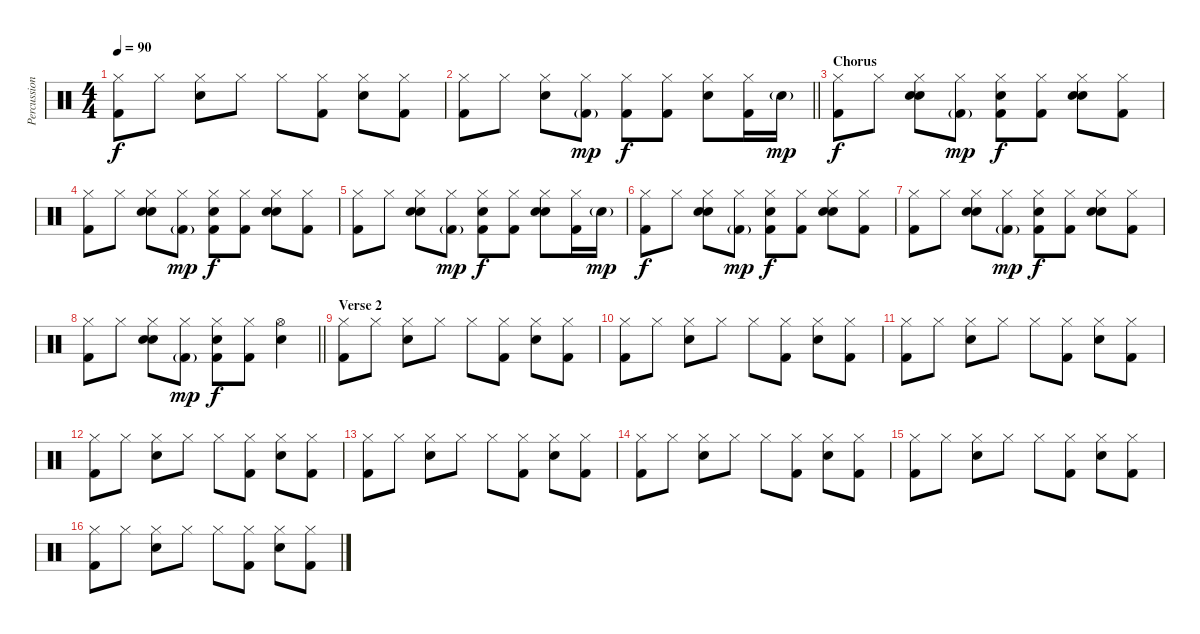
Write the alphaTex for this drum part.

\track ("Percussion" "Percussion") {instrument percussion}
\staff {score}
\articulation defaults
\ts (4 4)
\tempo 90
\clef neutral
\ks c
("Hi-Hat (closed)" "Kick (hit) 2").8{dy f} "Hi-Hat (closed)".8 ("Hi-Hat (closed)" "Snare (hit) 2").8 "Hi-Hat (closed)".8 "Hi-Hat (closed)".8 ("Hi-Hat (closed)" "Kick (hit) 2").8 ("Hi-Hat (closed)" "Snare (hit) 2").8 ("Hi-Hat (closed)" "Kick (hit) 2").8 |
\barLineRight lightlight
("Hi-Hat (closed)" "Kick (hit) 2").8 "Hi-Hat (closed)".8 ("Hi-Hat (closed)" "Snare (hit) 2").8 ("Hi-Hat (closed)" "Kick (hit) 2"{g}).8{dy mp} ("Hi-Hat (closed)" "Kick (hit) 2").8{dy f} ("Hi-Hat (closed)" "Kick (hit) 2").8 ("Hi-Hat (closed)" "Snare (hit) 2").8 ("Hi-Hat (closed)" "Kick (hit) 2").16 "Snare (hit) 2"{g}.16{dy mp} |
\section ("" "Chorus")
("Hi-Hat (closed)" "Kick (hit) 2").8{dy f} "Hi-Hat (closed)".8 ("Hi-Hat (closed)" "Hand Clap (hit)" "Snare (hit) 2").8 ("Hi-Hat (closed)" "Kick (hit) 2"{g}).8{dy mp} ("Hi-Hat (closed)" "Hand Clap (hit)" "Kick (hit) 2").8{dy f} ("Hi-Hat (closed)" "Kick (hit) 2").8 ("Hi-Hat (closed)" "Hand Clap (hit)" "Snare (hit) 2").8 ("Hi-Hat (closed)" "Kick (hit) 2").8 |
("Hi-Hat (closed)" "Kick (hit) 2").8 "Hi-Hat (closed)".8 ("Hi-Hat (closed)" "Hand Clap (hit)" "Snare (hit) 2").8 ("Hi-Hat (closed)" "Kick (hit) 2"{g}).8{dy mp} ("Hi-Hat (closed)" "Hand Clap (hit)" "Kick (hit) 2").8{dy f} ("Hi-Hat (closed)" "Kick (hit) 2").8 ("Hi-Hat (closed)" "Hand Clap (hit)" "Snare (hit) 2").8 ("Hi-Hat (closed)" "Kick (hit) 2").8 |
("Hi-Hat (closed)" "Kick (hit) 2").8 "Hi-Hat (closed)".8 ("Hi-Hat (closed)" "Hand Clap (hit)" "Snare (hit) 2").8 ("Hi-Hat (closed)" "Kick (hit) 2"{g}).8{dy mp} ("Hi-Hat (closed)" "Hand Clap (hit)" "Kick (hit) 2").8{dy f} ("Hi-Hat (closed)" "Kick (hit) 2").8 ("Hi-Hat (closed)" "Hand Clap (hit)" "Snare (hit) 2").8 ("Hi-Hat (closed)" "Kick (hit) 2").16 "Snare (hit) 2"{g}.16{dy mp} |
("Hi-Hat (closed)" "Kick (hit) 2").8{dy f} "Hi-Hat (closed)".8 ("Hi-Hat (closed)" "Hand Clap (hit)" "Snare (hit) 2").8 ("Hi-Hat (closed)" "Kick (hit) 2"{g}).8{dy mp} ("Hi-Hat (closed)" "Hand Clap (hit)" "Kick (hit) 2").8{dy f} ("Hi-Hat (closed)" "Kick (hit) 2").8 ("Hi-Hat (closed)" "Hand Clap (hit)" "Snare (hit) 2").8 ("Hi-Hat (closed)" "Kick (hit) 2").8 |
("Hi-Hat (closed)" "Kick (hit) 2").8 "Hi-Hat (closed)".8 ("Hi-Hat (closed)" "Hand Clap (hit)" "Snare (hit) 2").8 ("Hi-Hat (closed)" "Kick (hit) 2"{g}).8{dy mp} ("Hi-Hat (closed)" "Hand Clap (hit)" "Kick (hit) 2").8{dy f} ("Hi-Hat (closed)" "Kick (hit) 2").8 ("Hi-Hat (closed)" "Hand Clap (hit)" "Snare (hit) 2").8 ("Hi-Hat (closed)" "Kick (hit) 2").8 |
\barLineRight lightlight
("Hi-Hat (closed)" "Kick (hit) 2").8 "Hi-Hat (closed)".8 ("Hi-Hat (closed)" "Hand Clap (hit)" "Snare (hit) 2").8 ("Hi-Hat (closed)" "Kick (hit) 2"{g}).8{dy mp} ("Hi-Hat (closed)" "Hand Clap (hit)" "Kick (hit) 2").8{dy f} ("Hi-Hat (closed)" "Kick (hit) 2").8 ("Hi-Hat (open)" "Snare (hit) 2").4 |
\section ("" "Verse 2")
("Hi-Hat (closed)" "Kick (hit) 2").8 "Hi-Hat (closed)".8 ("Hi-Hat (closed)" "Snare (hit) 2").8 "Hi-Hat (closed)".8 "Hi-Hat (closed)".8 ("Hi-Hat (closed)" "Kick (hit) 2").8 ("Hi-Hat (closed)" "Snare (hit) 2").8 ("Hi-Hat (closed)" "Kick (hit) 2").8 |
("Hi-Hat (closed)" "Kick (hit) 2").8 "Hi-Hat (closed)".8 ("Hi-Hat (closed)" "Snare (hit) 2").8 "Hi-Hat (closed)".8 "Hi-Hat (closed)".8 ("Hi-Hat (closed)" "Kick (hit) 2").8 ("Hi-Hat (closed)" "Snare (hit) 2").8 ("Hi-Hat (closed)" "Kick (hit) 2").8 |
("Hi-Hat (closed)" "Kick (hit) 2").8 "Hi-Hat (closed)".8 ("Hi-Hat (closed)" "Snare (hit) 2").8 "Hi-Hat (closed)".8 "Hi-Hat (closed)".8 ("Hi-Hat (closed)" "Kick (hit) 2").8 ("Hi-Hat (closed)" "Snare (hit) 2").8 ("Hi-Hat (closed)" "Kick (hit) 2").8 |
("Hi-Hat (closed)" "Kick (hit) 2").8 "Hi-Hat (closed)".8 ("Hi-Hat (closed)" "Snare (hit) 2").8 "Hi-Hat (closed)".8 "Hi-Hat (closed)".8 ("Hi-Hat (closed)" "Kick (hit) 2").8 ("Hi-Hat (closed)" "Snare (hit) 2").8 ("Hi-Hat (closed)" "Kick (hit) 2").8 |
("Hi-Hat (closed)" "Kick (hit) 2").8 "Hi-Hat (closed)".8 ("Hi-Hat (closed)" "Snare (hit) 2").8 "Hi-Hat (closed)".8 "Hi-Hat (closed)".8 ("Hi-Hat (closed)" "Kick (hit) 2").8 ("Hi-Hat (closed)" "Snare (hit) 2").8 ("Hi-Hat (closed)" "Kick (hit) 2").8 |
("Hi-Hat (closed)" "Kick (hit) 2").8 "Hi-Hat (closed)".8 ("Hi-Hat (closed)" "Snare (hit) 2").8 "Hi-Hat (closed)".8 "Hi-Hat (closed)".8 ("Hi-Hat (closed)" "Kick (hit) 2").8 ("Hi-Hat (closed)" "Snare (hit) 2").8 ("Hi-Hat (closed)" "Kick (hit) 2").8 |
("Hi-Hat (closed)" "Kick (hit) 2").8 "Hi-Hat (closed)".8 ("Hi-Hat (closed)" "Snare (hit) 2").8 "Hi-Hat (closed)".8 "Hi-Hat (closed)".8 ("Hi-Hat (closed)" "Kick (hit) 2").8 ("Hi-Hat (closed)" "Snare (hit) 2").8 ("Hi-Hat (closed)" "Kick (hit) 2").8 |
("Hi-Hat (closed)" "Kick (hit) 2").8 "Hi-Hat (closed)".8 ("Hi-Hat (closed)" "Snare (hit) 2").8 "Hi-Hat (closed)".8 "Hi-Hat (closed)".8 ("Hi-Hat (closed)" "Kick (hit) 2").8 ("Hi-Hat (closed)" "Snare (hit) 2").8 ("Hi-Hat (closed)" "Kick (hit) 2").8
